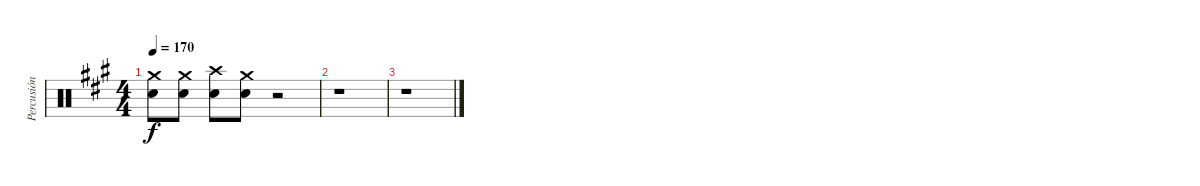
\track ("Percusión" "Percusión") {instrument percussion}
\staff {score}
\articulation defaults
\ts (4 4)
\tempo 170
\clef neutral
\ks a
("Crash medium (hit)" "Electric Snare (hit)").8{dy f} ("Crash medium (hit)" "Electric Snare (hit)").8 ("Crash high (hit)" "Electric Snare (hit)").8 ("Crash medium (hit)" "Electric Snare (hit)").8 r.2 |
r.1 |
r.1
